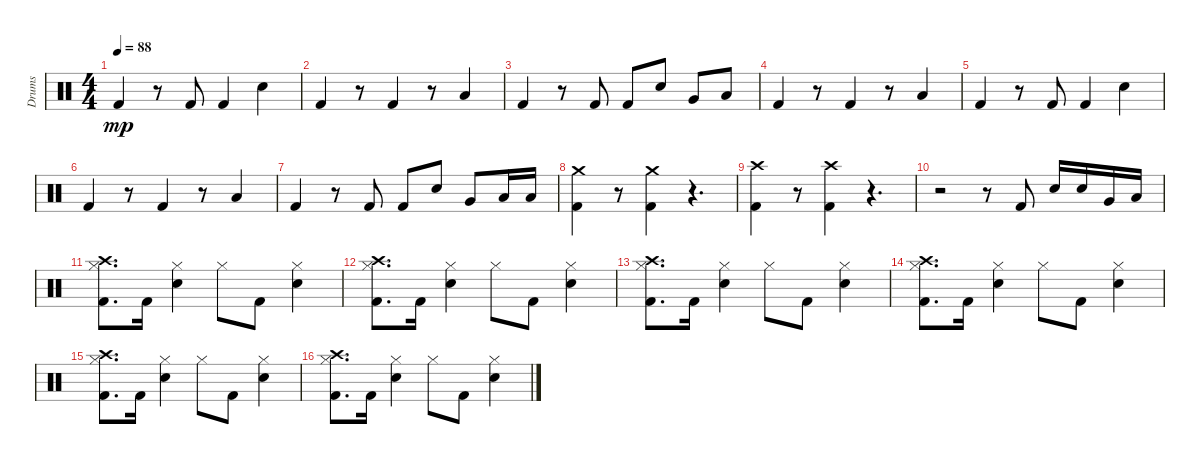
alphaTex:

\track ("Drums" "Drums") {instrument percussion}
\staff {score}
\articulation defaults
\ts (4 4)
\tempo 88
\clef neutral
\ks c "Kick (hit) 2".4{dy mp}
r.8 "Kick (hit) 2".8 "Kick (hit) 2".4 "Snare (hit) 2".4 |
"Kick (hit) 2".4 r.8 "Kick (hit) 2".4 r.8 "Low Floor Tom (hit)".4 |
"Kick (hit) 2".4 r.8 "Kick (hit) 2".8 "Kick (hit) 2".8 "Snare (hit) 2".8 "Very Low Tom (hit)".8 "Low Floor Tom (hit)".8 |
"Kick (hit) 2".4 r.8 "Kick (hit) 2".4 r.8 "Low Floor Tom (hit)".4 |
"Kick (hit) 2".4 r.8 "Kick (hit) 2".8 "Kick (hit) 2".4 "Snare (hit) 2".4 |
"Kick (hit) 2".4 r.8 "Kick (hit) 2".4 r.8 "Low Floor Tom (hit)".4 |
"Kick (hit) 2".4 r.8 "Kick (hit) 2".8 "Kick (hit) 2".8 "Snare (hit) 2".8 "Very Low Tom (hit)".8 "Low Floor Tom (hit)".16 "Low Floor Tom (hit)".16 |
("Kick (hit) 2" "Crash medium (hit)").4 r.8 ("Kick (hit) 2" "Crash medium (hit)").4 r.4{d} |
("Kick (hit) 2" "Crash high (hit)").4 r.8 ("Kick (hit) 2" "Crash high (hit)").4 r.4{d} |
r.2 r.8 "Kick (hit) 2".8 "Snare (hit) 2".16 "Snare (hit) 2".16 "Very Low Tom (hit)".16 "Low Floor Tom (hit)".16 |
("Hi-Hat (closed)" "Kick (hit) 2" "Crash high (hit)").8{d} "Kick (hit) 2".16 ("Snare (hit) 2" "Hi-Hat (closed)").4 "Hi-Hat (closed)".8 "Kick (hit) 2".8 ("Snare (hit) 2" "Hi-Hat (closed)").4 |
("Hi-Hat (closed)" "Kick (hit) 2" "Crash high (hit)").8{d} "Kick (hit) 2".16 ("Snare (hit) 2" "Hi-Hat (closed)").4 "Hi-Hat (closed)".8 "Kick (hit) 2".8 ("Snare (hit) 2" "Hi-Hat (closed)").4 |
("Hi-Hat (closed)" "Kick (hit) 2" "Crash high (hit)").8{d} "Kick (hit) 2".16 ("Snare (hit) 2" "Hi-Hat (closed)").4 "Hi-Hat (closed)".8 "Kick (hit) 2".8 ("Snare (hit) 2" "Hi-Hat (closed)").4 |
("Hi-Hat (closed)" "Kick (hit) 2" "Crash high (hit)").8{d} "Kick (hit) 2".16 ("Snare (hit) 2" "Hi-Hat (closed)").4 "Hi-Hat (closed)".8 "Kick (hit) 2".8 ("Snare (hit) 2" "Hi-Hat (closed)").4 |
("Hi-Hat (closed)" "Kick (hit) 2" "Crash high (hit)").8{d} "Kick (hit) 2".16 ("Snare (hit) 2" "Hi-Hat (closed)").4 "Hi-Hat (closed)".8 "Kick (hit) 2".8 ("Snare (hit) 2" "Hi-Hat (closed)").4 |
("Hi-Hat (closed)" "Kick (hit) 2" "Crash high (hit)").8{d} "Kick (hit) 2".16 ("Snare (hit) 2" "Hi-Hat (closed)").4 "Hi-Hat (closed)".8 "Kick (hit) 2".8 ("Snare (hit) 2" "Hi-Hat (closed)").4
